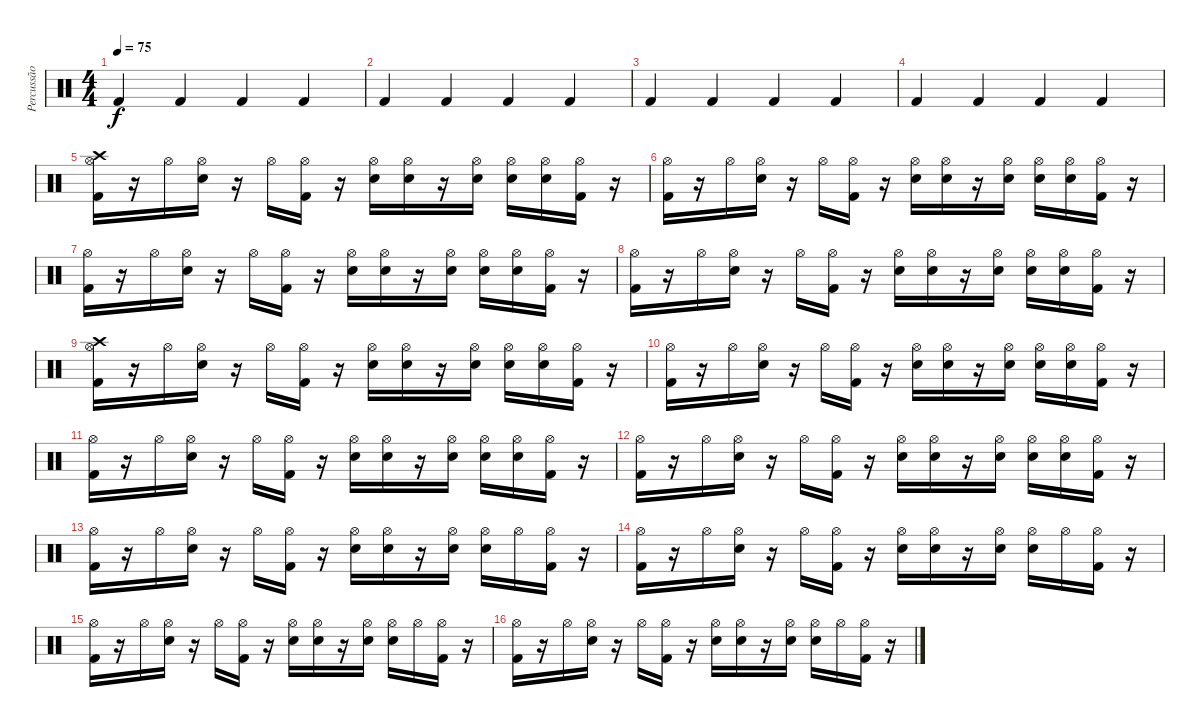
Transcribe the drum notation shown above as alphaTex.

\track ("Percussão" "Percussão") {instrument percussion}
\staff {score}
\articulation defaults
\ts (4 4)
\tempo 75
\clef neutral
\ks c "Kick (hit) 2".4{dy f} "Kick (hit) 2".4 "Kick (hit) 2".4 "Kick (hit) 2".4
|
"Kick (hit) 2".4 "Kick (hit) 2".4 "Kick (hit) 2".4 "Kick (hit) 2".4 |
"Kick (hit) 2".4 "Kick (hit) 2".4 "Kick (hit) 2".4 "Kick (hit) 2".4 |
"Kick (hit) 2".4 "Kick (hit) 2".4 "Kick (hit) 2".4 "Kick (hit) 2".4 |
("Crash high (hit)" "Kick (hit) 2" "Hi-Hat (open)").16 r.16 "Hi-Hat (open)".16 ("Snare (hit) 2" "Hi-Hat (open)").16 r.16 "Hi-Hat (open)".16 ("Kick (hit) 2" "Hi-Hat (open)").16 r.16 ("Electric Snare (hit)" "Hi-Hat (open)").16 ("Snare (hit) 2" "Hi-Hat (open)").16 r.16 ("Electric Snare (hit)" "Hi-Hat (open)").16 ("Electric Snare (hit)" "Hi-Hat (open)").16 ("Snare (hit) 2" "Hi-Hat (open)").16 ("Kick (hit) 2" "Hi-Hat (open)").16 r.16 |
("Kick (hit) 2" "Hi-Hat (open)").16 r.16 "Hi-Hat (open)".16 ("Snare (hit) 2" "Hi-Hat (open)").16 r.16 "Hi-Hat (open)".16 ("Kick (hit) 2" "Hi-Hat (open)").16 r.16 ("Electric Snare (hit)" "Hi-Hat (open)").16 ("Snare (hit) 2" "Hi-Hat (open)").16 r.16 ("Electric Snare (hit)" "Hi-Hat (open)").16 ("Electric Snare (hit)" "Hi-Hat (open)").16 ("Snare (hit) 2" "Hi-Hat (open)").16 ("Kick (hit) 2" "Hi-Hat (open)").16 r.16 |
("Kick (hit) 2" "Hi-Hat (open)").16 r.16 "Hi-Hat (open)".16 ("Snare (hit) 2" "Hi-Hat (open)").16 r.16 "Hi-Hat (open)".16 ("Kick (hit) 2" "Hi-Hat (open)").16 r.16 ("Electric Snare (hit)" "Hi-Hat (open)").16 ("Snare (hit) 2" "Hi-Hat (open)").16 r.16 ("Electric Snare (hit)" "Hi-Hat (open)").16 ("Electric Snare (hit)" "Hi-Hat (open)").16 ("Snare (hit) 2" "Hi-Hat (open)").16 ("Kick (hit) 2" "Hi-Hat (open)").16 r.16 |
("Kick (hit) 2" "Hi-Hat (open)").16 r.16 "Hi-Hat (open)".16 ("Snare (hit) 2" "Hi-Hat (open)").16 r.16 "Hi-Hat (open)".16 ("Kick (hit) 2" "Hi-Hat (open)").16 r.16 ("Electric Snare (hit)" "Hi-Hat (open)").16 ("Snare (hit) 2" "Hi-Hat (open)").16 r.16 ("Electric Snare (hit)" "Hi-Hat (open)").16 ("Electric Snare (hit)" "Hi-Hat (open)").16 ("Snare (hit) 2" "Hi-Hat (open)").16 ("Kick (hit) 2" "Hi-Hat (open)").16 r.16 |
("Crash high (hit)" "Kick (hit) 2" "Hi-Hat (open)").16 r.16 "Hi-Hat (open)".16 ("Snare (hit) 2" "Hi-Hat (open)").16 r.16 "Hi-Hat (open)".16 ("Kick (hit) 2" "Hi-Hat (open)").16 r.16 ("Electric Snare (hit)" "Hi-Hat (open)").16 ("Snare (hit) 2" "Hi-Hat (open)").16 r.16 ("Electric Snare (hit)" "Hi-Hat (open)").16 ("Electric Snare (hit)" "Hi-Hat (open)").16 ("Snare (hit) 2" "Hi-Hat (open)").16 ("Kick (hit) 2" "Hi-Hat (open)").16 r.16 |
("Kick (hit) 2" "Hi-Hat (open)").16 r.16 "Hi-Hat (open)".16 ("Snare (hit) 2" "Hi-Hat (open)").16 r.16 "Hi-Hat (open)".16 ("Kick (hit) 2" "Hi-Hat (open)").16 r.16 ("Electric Snare (hit)" "Hi-Hat (open)").16 ("Snare (hit) 2" "Hi-Hat (open)").16 r.16 ("Electric Snare (hit)" "Hi-Hat (open)").16 ("Electric Snare (hit)" "Hi-Hat (open)").16 ("Snare (hit) 2" "Hi-Hat (open)").16 ("Kick (hit) 2" "Hi-Hat (open)").16 r.16 |
("Kick (hit) 2" "Hi-Hat (open)").16 r.16 "Hi-Hat (open)".16 ("Snare (hit) 2" "Hi-Hat (open)").16 r.16 "Hi-Hat (open)".16 ("Kick (hit) 2" "Hi-Hat (open)").16 r.16 ("Electric Snare (hit)" "Hi-Hat (open)").16 ("Snare (hit) 2" "Hi-Hat (open)").16 r.16 ("Electric Snare (hit)" "Hi-Hat (open)").16 ("Electric Snare (hit)" "Hi-Hat (open)").16 ("Snare (hit) 2" "Hi-Hat (open)").16 ("Kick (hit) 2" "Hi-Hat (open)").16 r.16 |
("Kick (hit) 2" "Hi-Hat (open)").16 r.16 "Hi-Hat (open)".16 ("Snare (hit) 2" "Hi-Hat (open)").16 r.16 "Hi-Hat (open)".16 ("Kick (hit) 2" "Hi-Hat (open)").16 r.16 ("Electric Snare (hit)" "Hi-Hat (open)").16 ("Snare (hit) 2" "Hi-Hat (open)").16 r.16 ("Electric Snare (hit)" "Hi-Hat (open)").16 ("Electric Snare (hit)" "Hi-Hat (open)").16 ("Snare (hit) 2" "Hi-Hat (open)").16 ("Kick (hit) 2" "Hi-Hat (open)").16 r.16 |
("Kick (hit) 2" "Hi-Hat (open)").16 r.16 "Hi-Hat (open)".16 ("Snare (hit) 2" "Hi-Hat (open)").16 r.16 "Hi-Hat (open)".16 ("Kick (hit) 2" "Hi-Hat (open)").16 r.16 ("Electric Snare (hit)" "Hi-Hat (open)").16 ("Snare (hit) 2" "Hi-Hat (open)").16 r.16 ("Electric Snare (hit)" "Hi-Hat (open)").16 ("Electric Snare (hit)" "Hi-Hat (open)").16 "Hi-Hat (open)".16 ("Kick (hit) 2" "Hi-Hat (open)").16 r.16 |
("Kick (hit) 2" "Hi-Hat (open)").16 r.16 "Hi-Hat (open)".16 ("Snare (hit) 2" "Hi-Hat (open)").16 r.16 "Hi-Hat (open)".16 ("Kick (hit) 2" "Hi-Hat (open)").16 r.16 ("Electric Snare (hit)" "Hi-Hat (open)").16 ("Snare (hit) 2" "Hi-Hat (open)").16 r.16 ("Electric Snare (hit)" "Hi-Hat (open)").16 ("Electric Snare (hit)" "Hi-Hat (open)").16 "Hi-Hat (open)".16 ("Kick (hit) 2" "Hi-Hat (open)").16 r.16 |
("Kick (hit) 2" "Hi-Hat (open)").16 r.16 "Hi-Hat (open)".16 ("Snare (hit) 2" "Hi-Hat (open)").16 r.16 "Hi-Hat (open)".16 ("Kick (hit) 2" "Hi-Hat (open)").16 r.16 ("Electric Snare (hit)" "Hi-Hat (open)").16 ("Snare (hit) 2" "Hi-Hat (open)").16 r.16 ("Electric Snare (hit)" "Hi-Hat (open)").16 ("Electric Snare (hit)" "Hi-Hat (open)").16 "Hi-Hat (open)".16 ("Kick (hit) 2" "Hi-Hat (open)").16 r.16 |
("Kick (hit) 2" "Hi-Hat (open)").16 r.16 "Hi-Hat (open)".16 ("Snare (hit) 2" "Hi-Hat (open)").16 r.16 "Hi-Hat (open)".16 ("Kick (hit) 2" "Hi-Hat (open)").16 r.16 ("Electric Snare (hit)" "Hi-Hat (open)").16 ("Snare (hit) 2" "Hi-Hat (open)").16 r.16 ("Electric Snare (hit)" "Hi-Hat (open)").16 ("Electric Snare (hit)" "Hi-Hat (open)").16 "Hi-Hat (open)".16 ("Kick (hit) 2" "Hi-Hat (open)").16 r.16
